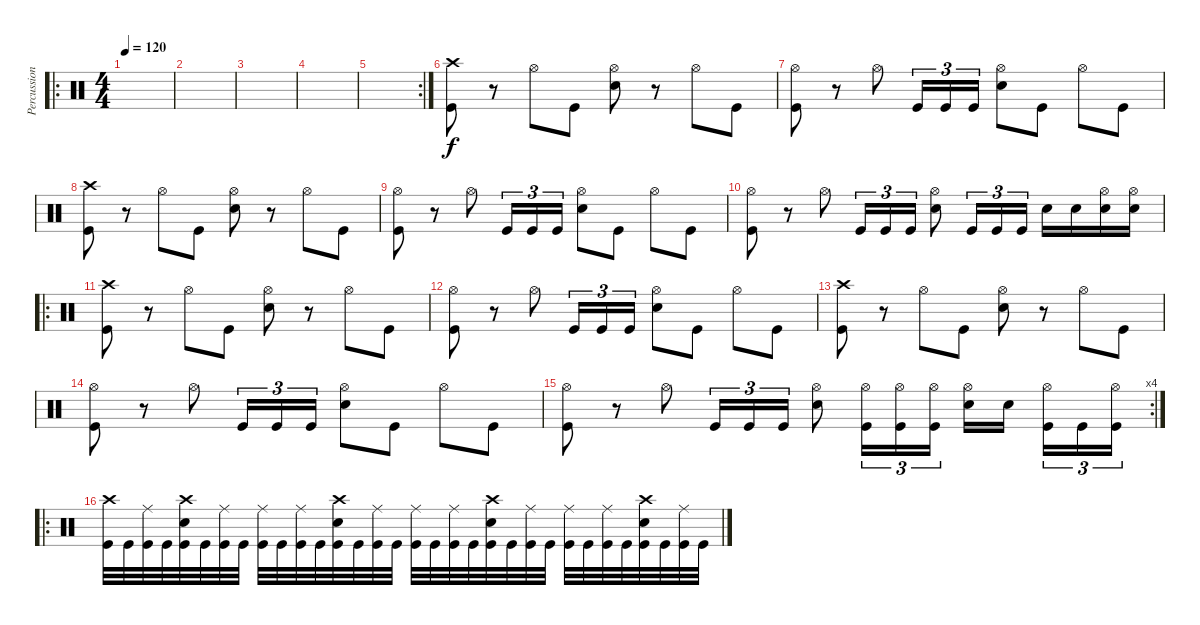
\track ("Percussions" "Percussion") {instrument percussion}
\staff {score}
\articulation defaults
\ro
\ts (4 4)
\tempo 120
\clef neutral
\ks c
|
|
|
|
\rc 2
|
("Crash high (hit)" "Kick (hit)").8 r.8 "Hi-Hat (open)".8 "Kick (hit)".8 ("Hi-Hat (open)" "Electric Snare (hit)").8 r.8 "Hi-Hat (open)".8 "Kick (hit)".8 |
("Hi-Hat (open)" "Kick (hit)").8 r.8 "Hi-Hat (open)".8 "Kick (hit)".16{tu (3 2)} "Kick (hit)".16{tu (3 2)} "Kick (hit)".16{tu (3 2)} ("Hi-Hat (open)" "Electric Snare (hit)").8 "Kick (hit)".8 "Hi-Hat (open)".8 "Kick (hit)".8 |
("Crash high (hit)" "Kick (hit)").8 r.8 "Hi-Hat (open)".8 "Kick (hit)".8 ("Hi-Hat (open)" "Electric Snare (hit)").8 r.8 "Hi-Hat (open)".8 "Kick (hit)".8 |
("Hi-Hat (open)" "Kick (hit)").8 r.8 "Hi-Hat (open)".8 "Kick (hit)".16{tu (3 2)} "Kick (hit)".16{tu (3 2)} "Kick (hit)".16{tu (3 2)} ("Hi-Hat (open)" "Electric Snare (hit)").8 "Kick (hit)".8 "Hi-Hat (open)".8 "Kick (hit)".8 |
("Hi-Hat (open)" "Kick (hit)").8 r.8 "Hi-Hat (open)".8 "Kick (hit)".16{tu (3 2)} "Kick (hit)".16{tu (3 2)} "Kick (hit)".16{tu (3 2)} ("Hi-Hat (open)" "Electric Snare (hit)").8 "Kick (hit)".16{tu (3 2)} "Kick (hit)".16{tu (3 2)} "Kick (hit)".16{tu (3 2)} "Electric Snare (hit)".16 "Electric Snare (hit)".16 ("Hi-Hat (open)" "Electric Snare (hit)").16 ("Hi-Hat (open)" "Electric Snare (hit)").16 |
\ro
("Crash high (hit)" "Kick (hit)").8 r.8 "Hi-Hat (open)".8 "Kick (hit)".8 ("Hi-Hat (open)" "Electric Snare (hit)").8 r.8 "Hi-Hat (open)".8 "Kick (hit)".8 |
("Hi-Hat (open)" "Kick (hit)").8 r.8 "Hi-Hat (open)".8 "Kick (hit)".16{tu (3 2)} "Kick (hit)".16{tu (3 2)} "Kick (hit)".16{tu (3 2)} ("Hi-Hat (open)" "Electric Snare (hit)").8 "Kick (hit)".8 "Hi-Hat (open)".8 "Kick (hit)".8 |
("Crash high (hit)" "Kick (hit)").8 r.8 "Hi-Hat (open)".8 "Kick (hit)".8 ("Hi-Hat (open)" "Electric Snare (hit)").8 r.8 "Hi-Hat (open)".8 "Kick (hit)".8 |
("Hi-Hat (open)" "Kick (hit)").8 r.8 "Hi-Hat (open)".8 "Kick (hit)".16{tu (3 2)} "Kick (hit)".16{tu (3 2)} "Kick (hit)".16{tu (3 2)} ("Hi-Hat (open)" "Electric Snare (hit)").8 "Kick (hit)".8 "Hi-Hat (open)".8 "Kick (hit)".8 |
\rc 4
("Hi-Hat (open)" "Kick (hit)").8 r.8 "Hi-Hat (open)".8 "Kick (hit)".16{tu (3 2)} "Kick (hit)".16{tu (3 2)} "Kick (hit)".16{tu (3 2)} ("Hi-Hat (open)" "Electric Snare (hit)").8 ("Hi-Hat (open)" "Kick (hit)").16{tu (3 2)} ("Hi-Hat (open)" "Kick (hit)").16{tu (3 2)} ("Hi-Hat (open)" "Kick (hit)").16{tu (3 2)} ("Hi-Hat (open)" "Electric Snare (hit)").16 "Electric Snare (hit)".16 ("Hi-Hat (open)" "Kick (hit)").16{tu (3 2)} "Kick (hit)".16{tu (3 2)} ("Hi-Hat (open)" "Kick (hit)").16{tu (3 2)} |
\ro
("Crash high (hit)" "Kick (hit)").32 "Kick (hit)".32 ("Ride (middle)" "Kick (hit)").32 "Kick (hit)".32 ("Crash high (hit)" "Electric Snare (hit)" "Kick (hit)").32 "Kick (hit)".32 ("Ride (middle)" "Kick (hit)").32 "Kick (hit)".32 ("Ride (middle)" "Kick (hit)").32 "Kick (hit)".32 ("Ride (middle)" "Kick (hit)").32 "Kick (hit)".32 ("Crash high (hit)" "Electric Snare (hit)" "Kick (hit)").32 "Kick (hit)".32 ("Ride (middle)" "Kick (hit)").32 "Kick (hit)".32 ("Ride (middle)" "Kick (hit)").32 "Kick (hit)".32 ("Ride (middle)" "Kick (hit)").32 "Kick (hit)".32 ("Crash high (hit)" "Electric Snare (hit)" "Kick (hit)").32 "Kick (hit)".32 ("Ride (middle)" "Kick (hit)").32 "Kick (hit)".32 ("Ride (middle)" "Kick (hit)").32 "Kick (hit)".32 ("Ride (middle)" "Kick (hit)").32 "Kick (hit)".32 ("Crash high (hit)" "Electric Snare (hit)" "Kick (hit)").32 "Kick (hit)".32 ("Ride (middle)" "Kick (hit)").32 "Kick (hit)".32
